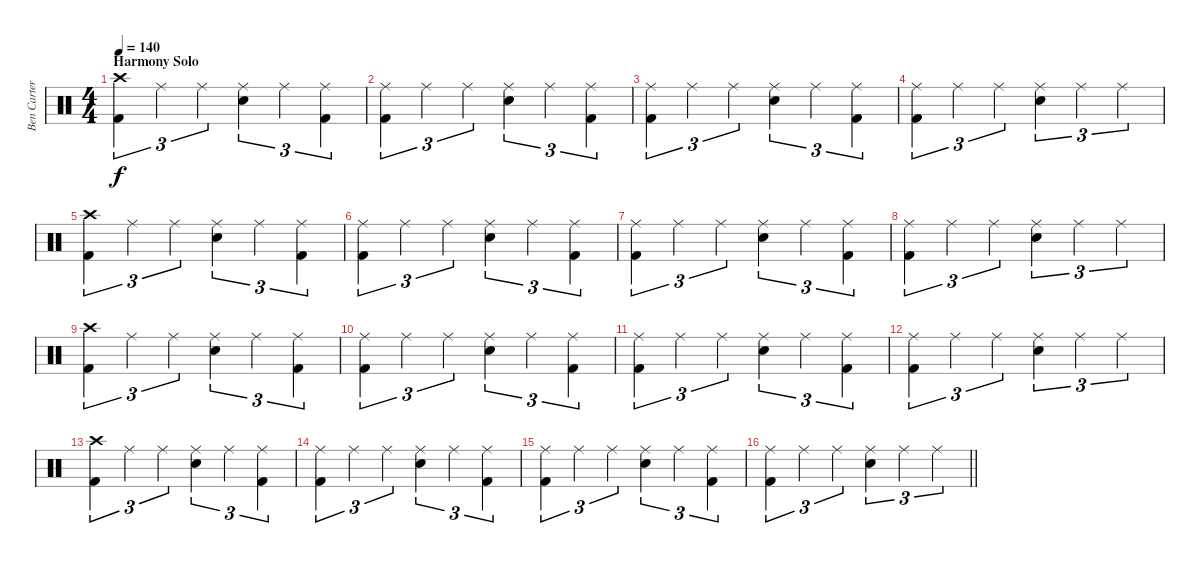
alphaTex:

\track ("Ben Carter" "Ben Carter") {instrument percussion}
\staff {score}
\articulation defaults
\ts (4 4)
\section ("" "Harmony Solo")
\tempo 140
\clef neutral
\ks c
("Crash high (hit)" "Kick (hit) 2").4{tu (3 2) dy f} "Ride (middle)".4{tu (3 2)} "Ride (middle)".4{tu (3 2)} ("Ride (middle)" "Snare (hit) 2").4{tu (3 2)} "Ride (middle)".4{tu (3 2)} ("Ride (middle)" "Kick (hit) 2").4{tu (3 2)} |
("Ride (middle)" "Kick (hit) 2").4{tu (3 2)} "Ride (middle)".4{tu (3 2)} "Ride (middle)".4{tu (3 2)} ("Ride (middle)" "Snare (hit) 2").4{tu (3 2)} "Ride (middle)".4{tu (3 2)} ("Ride (middle)" "Kick (hit) 2").4{tu (3 2)} |
("Ride (middle)" "Kick (hit) 2").4{tu (3 2)} "Ride (middle)".4{tu (3 2)} "Ride (middle)".4{tu (3 2)} ("Ride (middle)" "Snare (hit) 2").4{tu (3 2)} "Ride (middle)".4{tu (3 2)} ("Ride (middle)" "Kick (hit) 2").4{tu (3 2)} |
("Ride (middle)" "Kick (hit) 2").4{tu (3 2)} "Ride (middle)".4{tu (3 2)} "Ride (middle)".4{tu (3 2)} ("Ride (middle)" "Snare (hit) 2").4{tu (3 2)} "Ride (middle)".4{tu (3 2)} "Ride (middle)".4{tu (3 2)} |
("Crash high (hit)" "Kick (hit) 2").4{tu (3 2)} "Ride (middle)".4{tu (3 2)} "Ride (middle)".4{tu (3 2)} ("Ride (middle)" "Snare (hit) 2").4{tu (3 2)} "Ride (middle)".4{tu (3 2)} ("Ride (middle)" "Kick (hit) 2").4{tu (3 2)} |
("Ride (middle)" "Kick (hit) 2").4{tu (3 2)} "Ride (middle)".4{tu (3 2)} "Ride (middle)".4{tu (3 2)} ("Ride (middle)" "Snare (hit) 2").4{tu (3 2)} "Ride (middle)".4{tu (3 2)} ("Ride (middle)" "Kick (hit) 2").4{tu (3 2)} |
("Ride (middle)" "Kick (hit) 2").4{tu (3 2)} "Ride (middle)".4{tu (3 2)} "Ride (middle)".4{tu (3 2)} ("Ride (middle)" "Snare (hit) 2").4{tu (3 2)} "Ride (middle)".4{tu (3 2)} ("Ride (middle)" "Kick (hit) 2").4{tu (3 2)} |
("Ride (middle)" "Kick (hit) 2").4{tu (3 2)} "Ride (middle)".4{tu (3 2)} "Ride (middle)".4{tu (3 2)} ("Ride (middle)" "Snare (hit) 2").4{tu (3 2)} "Ride (middle)".4{tu (3 2)} "Ride (middle)".4{tu (3 2)} |
("Crash high (hit)" "Kick (hit) 2").4{tu (3 2)} "Ride (middle)".4{tu (3 2)} "Ride (middle)".4{tu (3 2)} ("Ride (middle)" "Snare (hit) 2").4{tu (3 2)} "Ride (middle)".4{tu (3 2)} ("Ride (middle)" "Kick (hit) 2").4{tu (3 2)} |
("Ride (middle)" "Kick (hit) 2").4{tu (3 2)} "Ride (middle)".4{tu (3 2)} "Ride (middle)".4{tu (3 2)} ("Ride (middle)" "Snare (hit) 2").4{tu (3 2)} "Ride (middle)".4{tu (3 2)} ("Ride (middle)" "Kick (hit) 2").4{tu (3 2)} |
("Ride (middle)" "Kick (hit) 2").4{tu (3 2)} "Ride (middle)".4{tu (3 2)} "Ride (middle)".4{tu (3 2)} ("Ride (middle)" "Snare (hit) 2").4{tu (3 2)} "Ride (middle)".4{tu (3 2)} ("Ride (middle)" "Kick (hit) 2").4{tu (3 2)} |
("Ride (middle)" "Kick (hit) 2").4{tu (3 2)} "Ride (middle)".4{tu (3 2)} "Ride (middle)".4{tu (3 2)} ("Ride (middle)" "Snare (hit) 2").4{tu (3 2)} "Ride (middle)".4{tu (3 2)} "Ride (middle)".4{tu (3 2)} |
("Crash high (hit)" "Kick (hit) 2").4{tu (3 2)} "Ride (middle)".4{tu (3 2)} "Ride (middle)".4{tu (3 2)} ("Ride (middle)" "Snare (hit) 2").4{tu (3 2)} "Ride (middle)".4{tu (3 2)} ("Ride (middle)" "Kick (hit) 2").4{tu (3 2)} |
("Ride (middle)" "Kick (hit) 2").4{tu (3 2)} "Ride (middle)".4{tu (3 2)} "Ride (middle)".4{tu (3 2)} ("Ride (middle)" "Snare (hit) 2").4{tu (3 2)} "Ride (middle)".4{tu (3 2)} ("Ride (middle)" "Kick (hit) 2").4{tu (3 2)} |
("Ride (middle)" "Kick (hit) 2").4{tu (3 2)} "Ride (middle)".4{tu (3 2)} "Ride (middle)".4{tu (3 2)} ("Ride (middle)" "Snare (hit) 2").4{tu (3 2)} "Ride (middle)".4{tu (3 2)} ("Ride (middle)" "Kick (hit) 2").4{tu (3 2)} |
\barLineRight lightlight
("Ride (middle)" "Kick (hit) 2").4{tu (3 2)} "Ride (middle)".4{tu (3 2)} "Ride (middle)".4{tu (3 2)} ("Ride (middle)" "Snare (hit) 2").4{tu (3 2)} "Ride (middle)".4{tu (3 2)} "Ride (middle)".4{tu (3 2)}
